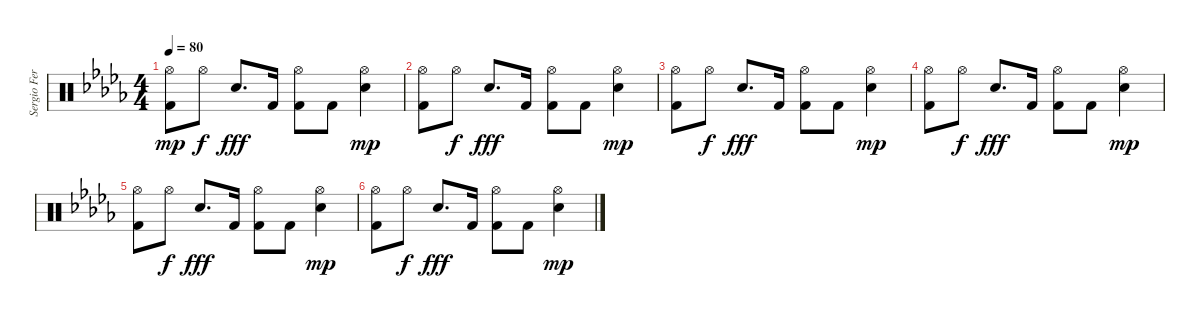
\track ("Sergio Fernandez \"Taz\"" "Sergio Fer") {instrument percussion}
\staff {score}
\articulation defaults
\ts (4 4)
\tempo 80
\clef neutral
\ks bbminor
("Kick (hit) 2" "Hi-Hat (open)").8{dy mp} "Hi-Hat (open)".8{dy f} "Snare (hit) 2".8{d dy fff} "Kick (hit) 2".16 ("Hi-Hat (open)" "Kick (hit) 2").8 "Kick (hit) 2".8 ("Snare (hit) 2" "Hi-Hat (open)").4{dy mp} |
("Kick (hit) 2" "Hi-Hat (open)").8 "Hi-Hat (open)".8{dy f} "Snare (hit) 2".8{d dy fff} "Kick (hit) 2".16 ("Hi-Hat (open)" "Kick (hit) 2").8 "Kick (hit) 2".8 ("Snare (hit) 2" "Hi-Hat (open)").4{dy mp} |
("Kick (hit) 2" "Hi-Hat (open)").8 "Hi-Hat (open)".8{dy f} "Snare (hit) 2".8{d dy fff} "Kick (hit) 2".16 ("Hi-Hat (open)" "Kick (hit) 2").8 "Kick (hit) 2".8 ("Snare (hit) 2" "Hi-Hat (open)").4{dy mp} |
("Kick (hit) 2" "Hi-Hat (open)").8 "Hi-Hat (open)".8{dy f} "Snare (hit) 2".8{d dy fff} "Kick (hit) 2".16 ("Hi-Hat (open)" "Kick (hit) 2").8 "Kick (hit) 2".8 ("Snare (hit) 2" "Hi-Hat (open)").4{dy mp} |
("Kick (hit) 2" "Hi-Hat (open)").8 "Hi-Hat (open)".8{dy f} "Snare (hit) 2".8{d dy fff} "Kick (hit) 2".16 ("Hi-Hat (open)" "Kick (hit) 2").8 "Kick (hit) 2".8 ("Snare (hit) 2" "Hi-Hat (open)").4{dy mp} |
("Kick (hit) 2" "Hi-Hat (open)").8 "Hi-Hat (open)".8{dy f} "Snare (hit) 2".8{d dy fff} "Kick (hit) 2".16 ("Hi-Hat (open)" "Kick (hit) 2").8 "Kick (hit) 2".8 ("Snare (hit) 2" "Hi-Hat (open)").4{dy mp}
